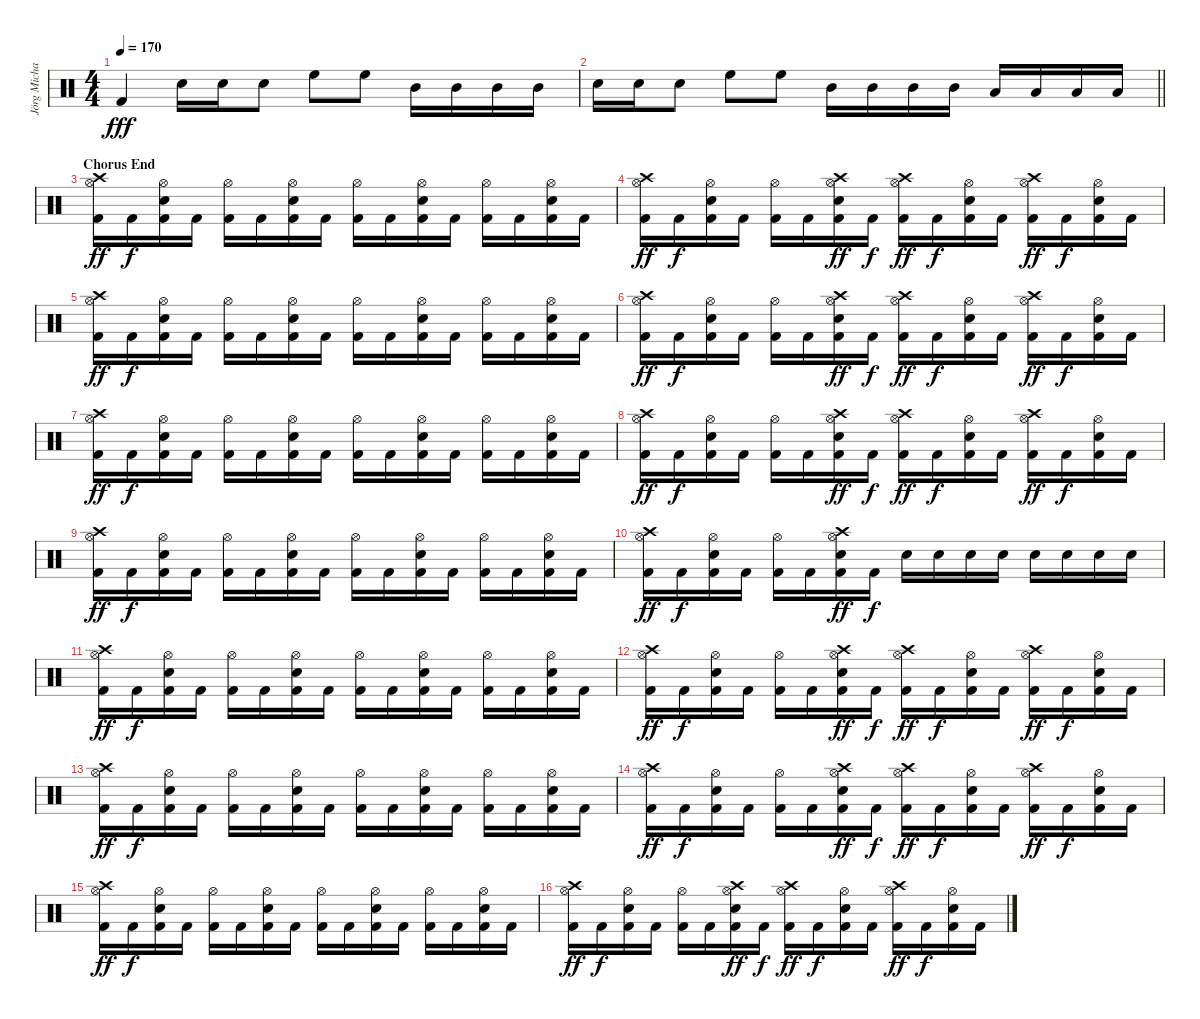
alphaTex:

\track ("Jörg Michael" "Jörg Micha") {instrument percussion}
\staff {score}
\articulation defaults
\ts (4 4)
\tempo 170
\clef neutral
\ks c "Kick (hit) 2".4{dy fff} "Electric Snare (hit)".16 "Electric Snare (hit)".16 "Electric Snare (hit)".8 "High Floor Tom (hit)".8 "High Floor Tom (hit)".8 "Mid Tom (hit)".16 "Mid Tom (hit)".16 "Mid Tom (hit)".16 "Mid Tom (hit)".16
|
\barLineRight lightlight "Electric Snare (hit)".16 "Electric Snare (hit)".16 "Electric Snare (hit)".8 "High Floor Tom (hit)".8 "High Floor Tom (hit)".8 "Mid Tom (hit)".16 "Mid Tom (hit)".16 "Mid Tom (hit)".16 "Mid Tom (hit)".16 "Low Tom (hit)".16 "Low Tom (hit)".16 "Low Tom (hit)".16 "Low Tom (hit)".16
|
\section ("" "Chorus End")
("Hi-Hat (open)" "Kick (hit) 2" "Crash high (hit)").16{dy ff} "Kick (hit) 2".16{dy f} ("Electric Snare (hit)" "Hi-Hat (open)" "Kick (hit) 2").16 "Kick (hit) 2".16 ("Hi-Hat (open)" "Kick (hit) 2").16 "Kick (hit) 2".16 ("Electric Snare (hit)" "Hi-Hat (open)" "Kick (hit) 2").16 "Kick (hit) 2".16 ("Hi-Hat (open)" "Kick (hit) 2").16 "Kick (hit) 2".16 ("Electric Snare (hit)" "Hi-Hat (open)" "Kick (hit) 2").16 "Kick (hit) 2".16 ("Hi-Hat (open)" "Kick (hit) 2").16 "Kick (hit) 2".16 ("Electric Snare (hit)" "Hi-Hat (open)" "Kick (hit) 2").16 "Kick (hit) 2".16 |
("Hi-Hat (open)" "Kick (hit) 2" "Crash high (hit)").16{dy ff} "Kick (hit) 2".16{dy f} ("Electric Snare (hit)" "Hi-Hat (open)" "Kick (hit) 2").16 "Kick (hit) 2".16 ("Hi-Hat (open)" "Kick (hit) 2").16 "Kick (hit) 2".16 ("Electric Snare (hit)" "Hi-Hat (open)" "Kick (hit) 2" "Crash high (hit)").16{dy ff} "Kick (hit) 2".16{dy f} ("Hi-Hat (open)" "Kick (hit) 2" "Crash high (hit)").16{dy ff} "Kick (hit) 2".16{dy f} ("Electric Snare (hit)" "Hi-Hat (open)" "Kick (hit) 2").16 "Kick (hit) 2".16 ("Hi-Hat (open)" "Kick (hit) 2" "Crash high (hit)").16{dy ff} "Kick (hit) 2".16{dy f} ("Electric Snare (hit)" "Hi-Hat (open)" "Kick (hit) 2").16 "Kick (hit) 2".16 |
("Hi-Hat (open)" "Kick (hit) 2" "Crash high (hit)").16{dy ff} "Kick (hit) 2".16{dy f} ("Electric Snare (hit)" "Hi-Hat (open)" "Kick (hit) 2").16 "Kick (hit) 2".16 ("Hi-Hat (open)" "Kick (hit) 2").16 "Kick (hit) 2".16 ("Electric Snare (hit)" "Hi-Hat (open)" "Kick (hit) 2").16 "Kick (hit) 2".16 ("Hi-Hat (open)" "Kick (hit) 2").16 "Kick (hit) 2".16 ("Electric Snare (hit)" "Hi-Hat (open)" "Kick (hit) 2").16 "Kick (hit) 2".16 ("Hi-Hat (open)" "Kick (hit) 2").16 "Kick (hit) 2".16 ("Electric Snare (hit)" "Hi-Hat (open)" "Kick (hit) 2").16 "Kick (hit) 2".16 |
("Hi-Hat (open)" "Kick (hit) 2" "Crash high (hit)").16{dy ff} "Kick (hit) 2".16{dy f} ("Electric Snare (hit)" "Hi-Hat (open)" "Kick (hit) 2").16 "Kick (hit) 2".16 ("Hi-Hat (open)" "Kick (hit) 2").16 "Kick (hit) 2".16 ("Electric Snare (hit)" "Hi-Hat (open)" "Kick (hit) 2" "Crash high (hit)").16{dy ff} "Kick (hit) 2".16{dy f} ("Hi-Hat (open)" "Kick (hit) 2" "Crash high (hit)").16{dy ff} "Kick (hit) 2".16{dy f} ("Electric Snare (hit)" "Hi-Hat (open)" "Kick (hit) 2").16 "Kick (hit) 2".16 ("Hi-Hat (open)" "Kick (hit) 2" "Crash high (hit)").16{dy ff} "Kick (hit) 2".16{dy f} ("Electric Snare (hit)" "Hi-Hat (open)" "Kick (hit) 2").16 "Kick (hit) 2".16 |
("Hi-Hat (open)" "Kick (hit) 2" "Crash high (hit)").16{dy ff} "Kick (hit) 2".16{dy f} ("Electric Snare (hit)" "Hi-Hat (open)" "Kick (hit) 2").16 "Kick (hit) 2".16 ("Hi-Hat (open)" "Kick (hit) 2").16 "Kick (hit) 2".16 ("Electric Snare (hit)" "Hi-Hat (open)" "Kick (hit) 2").16 "Kick (hit) 2".16 ("Hi-Hat (open)" "Kick (hit) 2").16 "Kick (hit) 2".16 ("Electric Snare (hit)" "Hi-Hat (open)" "Kick (hit) 2").16 "Kick (hit) 2".16 ("Hi-Hat (open)" "Kick (hit) 2").16 "Kick (hit) 2".16 ("Electric Snare (hit)" "Hi-Hat (open)" "Kick (hit) 2").16 "Kick (hit) 2".16 |
("Hi-Hat (open)" "Kick (hit) 2" "Crash high (hit)").16{dy ff} "Kick (hit) 2".16{dy f} ("Electric Snare (hit)" "Hi-Hat (open)" "Kick (hit) 2").16 "Kick (hit) 2".16 ("Hi-Hat (open)" "Kick (hit) 2").16 "Kick (hit) 2".16 ("Electric Snare (hit)" "Hi-Hat (open)" "Kick (hit) 2" "Crash high (hit)").16{dy ff} "Kick (hit) 2".16{dy f} ("Hi-Hat (open)" "Kick (hit) 2" "Crash high (hit)").16{dy ff} "Kick (hit) 2".16{dy f} ("Electric Snare (hit)" "Hi-Hat (open)" "Kick (hit) 2").16 "Kick (hit) 2".16 ("Hi-Hat (open)" "Kick (hit) 2" "Crash high (hit)").16{dy ff} "Kick (hit) 2".16{dy f} ("Electric Snare (hit)" "Hi-Hat (open)" "Kick (hit) 2").16 "Kick (hit) 2".16 |
("Hi-Hat (open)" "Kick (hit) 2" "Crash high (hit)").16{dy ff} "Kick (hit) 2".16{dy f} ("Electric Snare (hit)" "Hi-Hat (open)" "Kick (hit) 2").16 "Kick (hit) 2".16 ("Hi-Hat (open)" "Kick (hit) 2").16 "Kick (hit) 2".16 ("Electric Snare (hit)" "Hi-Hat (open)" "Kick (hit) 2").16 "Kick (hit) 2".16 ("Hi-Hat (open)" "Kick (hit) 2").16 "Kick (hit) 2".16 ("Electric Snare (hit)" "Hi-Hat (open)" "Kick (hit) 2").16 "Kick (hit) 2".16 ("Hi-Hat (open)" "Kick (hit) 2").16 "Kick (hit) 2".16 ("Electric Snare (hit)" "Hi-Hat (open)" "Kick (hit) 2").16 "Kick (hit) 2".16 |
("Hi-Hat (open)" "Kick (hit) 2" "Crash high (hit)").16{dy ff} "Kick (hit) 2".16{dy f} ("Electric Snare (hit)" "Hi-Hat (open)" "Kick (hit) 2").16 "Kick (hit) 2".16 ("Hi-Hat (open)" "Kick (hit) 2").16 "Kick (hit) 2".16 ("Electric Snare (hit)" "Hi-Hat (open)" "Kick (hit) 2" "Crash high (hit)").16{dy ff} "Kick (hit) 2".16{dy f} "Electric Snare (hit)".16 "Electric Snare (hit)".16 "Electric Snare (hit)".16 "Electric Snare (hit)".16 "Electric Snare (hit)".16 "Electric Snare (hit)".16 "Electric Snare (hit)".16 "Electric Snare (hit)".16 |
("Hi-Hat (open)" "Kick (hit) 2" "Crash high (hit)").16{dy ff} "Kick (hit) 2".16{dy f} ("Electric Snare (hit)" "Hi-Hat (open)" "Kick (hit) 2").16 "Kick (hit) 2".16 ("Hi-Hat (open)" "Kick (hit) 2").16 "Kick (hit) 2".16 ("Electric Snare (hit)" "Hi-Hat (open)" "Kick (hit) 2").16 "Kick (hit) 2".16 ("Hi-Hat (open)" "Kick (hit) 2").16 "Kick (hit) 2".16 ("Electric Snare (hit)" "Hi-Hat (open)" "Kick (hit) 2").16 "Kick (hit) 2".16 ("Hi-Hat (open)" "Kick (hit) 2").16 "Kick (hit) 2".16 ("Electric Snare (hit)" "Hi-Hat (open)" "Kick (hit) 2").16 "Kick (hit) 2".16 |
("Hi-Hat (open)" "Kick (hit) 2" "Crash high (hit)").16{dy ff} "Kick (hit) 2".16{dy f} ("Electric Snare (hit)" "Hi-Hat (open)" "Kick (hit) 2").16 "Kick (hit) 2".16 ("Hi-Hat (open)" "Kick (hit) 2").16 "Kick (hit) 2".16 ("Electric Snare (hit)" "Hi-Hat (open)" "Kick (hit) 2" "Crash high (hit)").16{dy ff} "Kick (hit) 2".16{dy f} ("Hi-Hat (open)" "Kick (hit) 2" "Crash high (hit)").16{dy ff} "Kick (hit) 2".16{dy f} ("Electric Snare (hit)" "Hi-Hat (open)" "Kick (hit) 2").16 "Kick (hit) 2".16 ("Hi-Hat (open)" "Kick (hit) 2" "Crash high (hit)").16{dy ff} "Kick (hit) 2".16{dy f} ("Electric Snare (hit)" "Hi-Hat (open)" "Kick (hit) 2").16 "Kick (hit) 2".16 |
("Hi-Hat (open)" "Kick (hit) 2" "Crash high (hit)").16{dy ff} "Kick (hit) 2".16{dy f} ("Electric Snare (hit)" "Hi-Hat (open)" "Kick (hit) 2").16 "Kick (hit) 2".16 ("Hi-Hat (open)" "Kick (hit) 2").16 "Kick (hit) 2".16 ("Electric Snare (hit)" "Hi-Hat (open)" "Kick (hit) 2").16 "Kick (hit) 2".16 ("Hi-Hat (open)" "Kick (hit) 2").16 "Kick (hit) 2".16 ("Electric Snare (hit)" "Hi-Hat (open)" "Kick (hit) 2").16 "Kick (hit) 2".16 ("Hi-Hat (open)" "Kick (hit) 2").16 "Kick (hit) 2".16 ("Electric Snare (hit)" "Hi-Hat (open)" "Kick (hit) 2").16 "Kick (hit) 2".16 |
("Hi-Hat (open)" "Kick (hit) 2" "Crash high (hit)").16{dy ff} "Kick (hit) 2".16{dy f} ("Electric Snare (hit)" "Hi-Hat (open)" "Kick (hit) 2").16 "Kick (hit) 2".16 ("Hi-Hat (open)" "Kick (hit) 2").16 "Kick (hit) 2".16 ("Electric Snare (hit)" "Hi-Hat (open)" "Kick (hit) 2" "Crash high (hit)").16{dy ff} "Kick (hit) 2".16{dy f} ("Hi-Hat (open)" "Kick (hit) 2" "Crash high (hit)").16{dy ff} "Kick (hit) 2".16{dy f} ("Electric Snare (hit)" "Hi-Hat (open)" "Kick (hit) 2").16 "Kick (hit) 2".16 ("Hi-Hat (open)" "Kick (hit) 2" "Crash high (hit)").16{dy ff} "Kick (hit) 2".16{dy f} ("Electric Snare (hit)" "Hi-Hat (open)" "Kick (hit) 2").16 "Kick (hit) 2".16 |
("Hi-Hat (open)" "Kick (hit) 2" "Crash high (hit)").16{dy ff} "Kick (hit) 2".16{dy f} ("Electric Snare (hit)" "Hi-Hat (open)" "Kick (hit) 2").16 "Kick (hit) 2".16 ("Hi-Hat (open)" "Kick (hit) 2").16 "Kick (hit) 2".16 ("Electric Snare (hit)" "Hi-Hat (open)" "Kick (hit) 2").16 "Kick (hit) 2".16 ("Hi-Hat (open)" "Kick (hit) 2").16 "Kick (hit) 2".16 ("Electric Snare (hit)" "Hi-Hat (open)" "Kick (hit) 2").16 "Kick (hit) 2".16 ("Hi-Hat (open)" "Kick (hit) 2").16 "Kick (hit) 2".16 ("Electric Snare (hit)" "Hi-Hat (open)" "Kick (hit) 2").16 "Kick (hit) 2".16 |
("Hi-Hat (open)" "Kick (hit) 2" "Crash high (hit)").16{dy ff} "Kick (hit) 2".16{dy f} ("Electric Snare (hit)" "Hi-Hat (open)" "Kick (hit) 2").16 "Kick (hit) 2".16 ("Hi-Hat (open)" "Kick (hit) 2").16 "Kick (hit) 2".16 ("Electric Snare (hit)" "Hi-Hat (open)" "Kick (hit) 2" "Crash high (hit)").16{dy ff} "Kick (hit) 2".16{dy f} ("Hi-Hat (open)" "Kick (hit) 2" "Crash high (hit)").16{dy ff} "Kick (hit) 2".16{dy f} ("Electric Snare (hit)" "Hi-Hat (open)" "Kick (hit) 2").16 "Kick (hit) 2".16 ("Hi-Hat (open)" "Kick (hit) 2" "Crash high (hit)").16{dy ff} "Kick (hit) 2".16{dy f} ("Electric Snare (hit)" "Hi-Hat (open)" "Kick (hit) 2").16 "Kick (hit) 2".16
